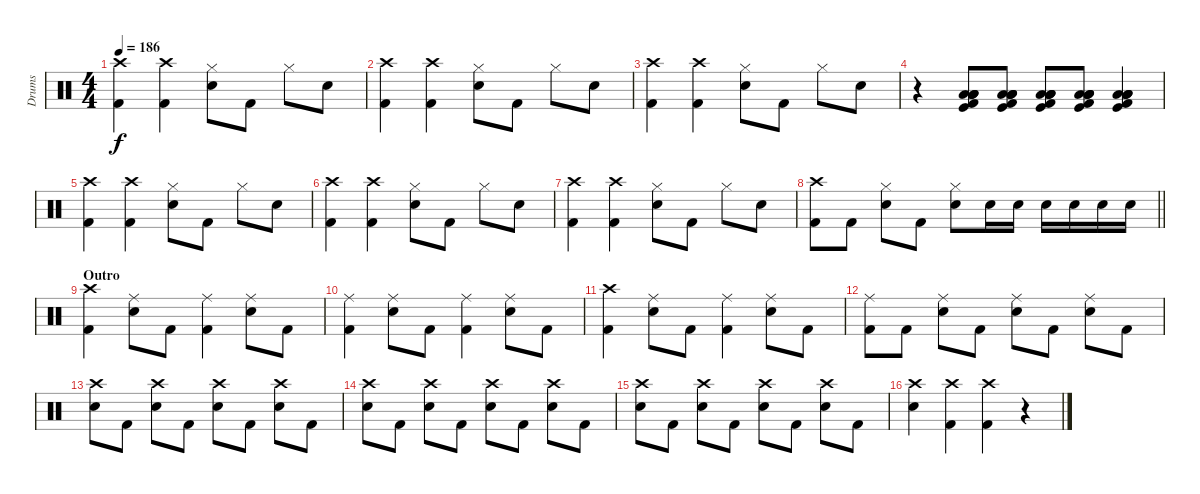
\track ("Drums" "Drums") {instrument percussion}
\staff {score}
\articulation defaults
\ts (4 4)
\tempo 186
\clef neutral
\ks c
("Crash high (hit)" "Kick (hit) 2").4{dy f} ("Crash high (hit)" "Kick (hit) 2").4 ("Hi-Hat (closed)" "Snare (hit) 2").8 "Kick (hit) 2".8 "Hi-Hat (closed)".8 "Snare (hit) 2".8 |
("Crash high (hit)" "Kick (hit) 2").4 ("Crash high (hit)" "Kick (hit) 2").4 ("Hi-Hat (closed)" "Snare (hit) 2").8 "Kick (hit) 2".8 "Hi-Hat (closed)".8 "Snare (hit) 2".8 |
("Crash high (hit)" "Kick (hit) 2").4 ("Crash high (hit)" "Kick (hit) 2").4 ("Hi-Hat (closed)" "Snare (hit) 2").8 "Kick (hit) 2".8 "Hi-Hat (closed)".8 "Snare (hit) 2".8 |
r.4 ("Low Tom (hit)" "Kick (hit) 2" "Kick (hit)" "Low Floor Tom (hit)" "Low Floor Tom (hit)" "Low Floor Tom (hit)").8 ("Low Tom (hit)" "Kick (hit) 2" "Kick (hit)" "Low Floor Tom (hit)" "Low Floor Tom (hit)" "Low Floor Tom (hit)").8 ("Low Tom (hit)" "Kick (hit) 2" "Kick (hit)" "Low Floor Tom (hit)" "Low Floor Tom (hit)" "Low Floor Tom (hit)").8 ("Low Tom (hit)" "Kick (hit) 2" "Kick (hit)" "Low Floor Tom (hit)" "Low Floor Tom (hit)" "Low Floor Tom (hit)").8 ("Low Tom (hit)" "Kick (hit) 2" "Kick (hit)" "Low Floor Tom (hit)" "Low Floor Tom (hit)" "Low Floor Tom (hit)").4 |
("Crash high (hit)" "Kick (hit) 2").4 ("Crash high (hit)" "Kick (hit) 2").4 ("Hi-Hat (closed)" "Snare (hit) 2").8 "Kick (hit) 2".8 "Hi-Hat (closed)".8 "Snare (hit) 2".8 |
("Crash high (hit)" "Kick (hit) 2").4 ("Crash high (hit)" "Kick (hit) 2").4 ("Hi-Hat (closed)" "Snare (hit) 2").8 "Kick (hit) 2".8 "Hi-Hat (closed)".8 "Snare (hit) 2".8 |
("Crash high (hit)" "Kick (hit) 2").4 ("Crash high (hit)" "Kick (hit) 2").4 ("Hi-Hat (closed)" "Snare (hit) 2").8 "Kick (hit) 2".8 "Hi-Hat (closed)".8 "Snare (hit) 2".8 |
\barLineRight lightlight
("Crash high (hit)" "Kick (hit) 2").8 "Kick (hit) 2".8 ("Hi-Hat (closed)" "Snare (hit) 2").8 "Kick (hit) 2".8 ("Hi-Hat (closed)" "Snare (hit) 2").8 "Snare (hit) 2".16 "Snare (hit) 2".16 "Snare (hit) 2".16 "Snare (hit) 2".16 "Snare (hit) 2".16 "Snare (hit) 2".16 |
\section ("" "Outro")
("Crash high (hit)" "Kick (hit) 2").4 ("Ride (middle)" "Snare (hit) 2").8 "Kick (hit) 2".8 ("Ride (middle)" "Kick (hit) 2").4 ("Ride (middle)" "Snare (hit) 2").8 "Kick (hit) 2".8 |
("Ride (middle)" "Kick (hit) 2").4 ("Ride (middle)" "Snare (hit) 2").8 "Kick (hit) 2".8 ("Ride (middle)" "Kick (hit) 2").4 ("Ride (middle)" "Snare (hit) 2").8 "Kick (hit) 2".8 |
("Crash high (hit)" "Kick (hit) 2").4 ("Ride (middle)" "Snare (hit) 2").8 "Kick (hit) 2".8 ("Ride (middle)" "Kick (hit) 2").4 ("Ride (middle)" "Snare (hit) 2").8 "Kick (hit) 2".8 |
("Ride (middle)" "Kick (hit) 2").8 "Kick (hit) 2".8 ("Ride (middle)" "Snare (hit) 2").8 "Kick (hit) 2".8 ("Ride (middle)" "Snare (hit) 2").8 "Kick (hit) 2".8 ("Ride (middle)" "Snare (hit) 2").8 "Kick (hit) 2".8 |
("Crash high (hit)" "Snare (hit) 2").8 "Kick (hit) 2".8 ("Crash high (hit)" "Snare (hit) 2").8 "Kick (hit) 2".8 ("Crash high (hit)" "Snare (hit) 2").8 "Kick (hit) 2".8 ("Crash high (hit)" "Snare (hit) 2").8 "Kick (hit) 2".8 |
("Crash high (hit)" "Snare (hit) 2").8 "Kick (hit) 2".8 ("Crash high (hit)" "Snare (hit) 2").8 "Kick (hit) 2".8 ("Crash high (hit)" "Snare (hit) 2").8 "Kick (hit) 2".8 ("Crash high (hit)" "Snare (hit) 2").8 "Kick (hit) 2".8 |
("Crash high (hit)" "Snare (hit) 2").8 "Kick (hit) 2".8 ("Crash high (hit)" "Snare (hit) 2").8 "Kick (hit) 2".8 ("Crash high (hit)" "Snare (hit) 2").8 "Kick (hit) 2".8 ("Crash high (hit)" "Snare (hit) 2").8 "Kick (hit) 2".8 |
("Crash high (hit)" "Snare (hit) 2").4 ("Crash high (hit)" "Kick (hit) 2").4 ("Crash high (hit)" "Kick (hit) 2").4 r.4
